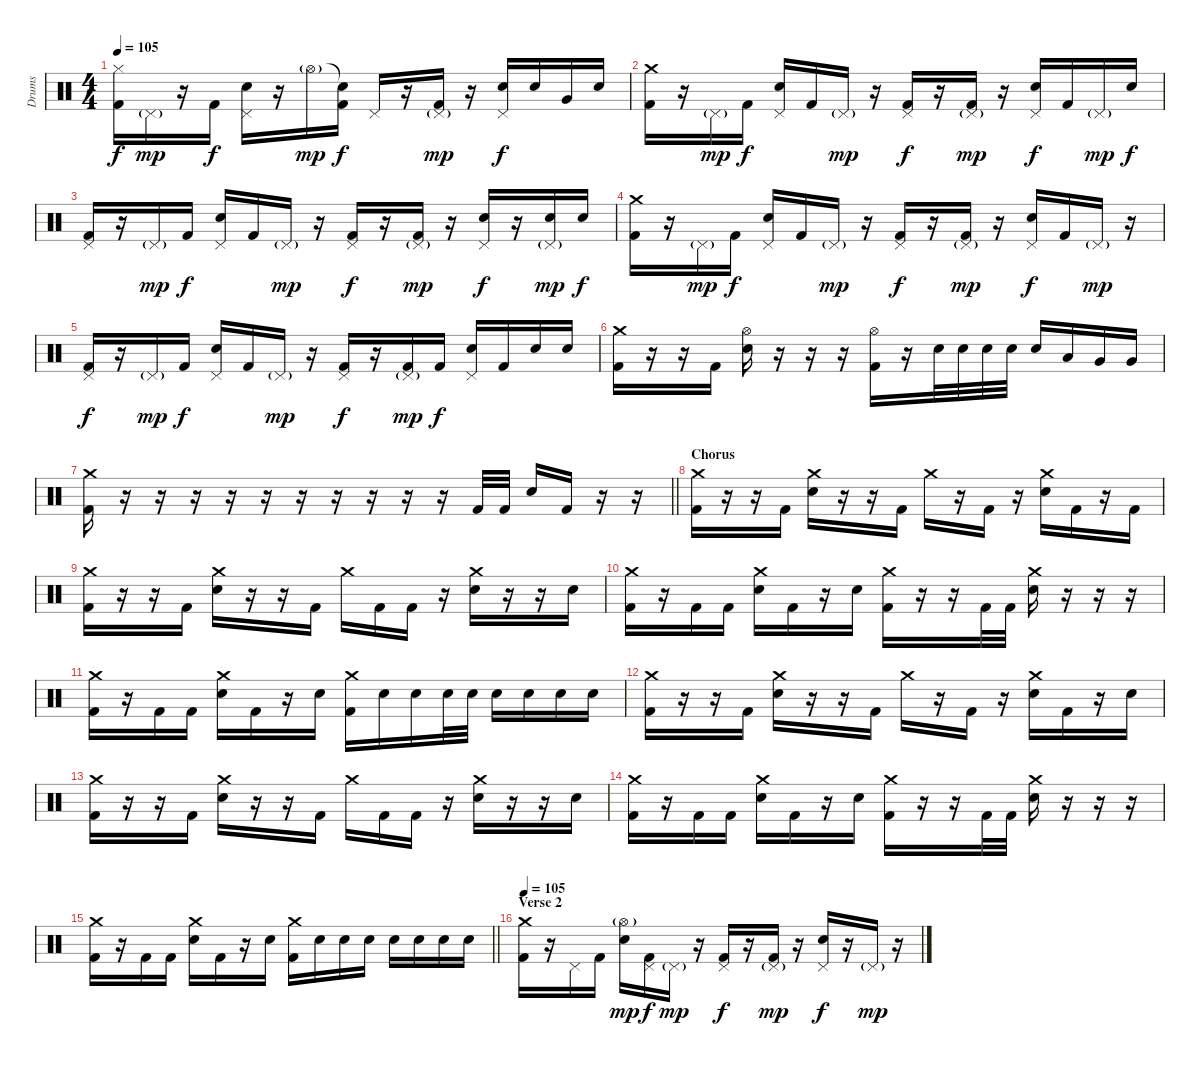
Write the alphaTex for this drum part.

\track ("Drums" "Drums") {instrument percussion}
\staff {score}
\articulation defaults
\ts (4 4)
\tempo 105
\clef neutral
\ks c
("Hi-Hat (closed)" "Kick (hit) 2").16{dy f} "Pedal Hi-Hat (hit)"{g}.16{dy mp} r.16 "Kick (hit) 2".16{dy f} ("Pedal Hi-Hat (hit)" "Electric Snare (hit)").16 r.16 "Hi-Hat (open)"{g}.16{dy mp} ("Snare (hit)"{t} "Kick (hit) 2").16{dy f} "Pedal Hi-Hat (hit)".16 r.16 ("Pedal Hi-Hat (hit)"{g} "Kick (hit) 2").16{dy mp} r.16 ("Pedal Hi-Hat (hit)" "Electric Snare (hit)").16{dy f} "Electric Snare (hit)".16 "Very Low Tom (hit)".16 "Electric Snare (hit)".16 |
("Crash medium (hit)" "Kick (hit) 2").16 r.16 "Pedal Hi-Hat (hit)"{g}.16{dy mp} "Kick (hit) 2".16{dy f} ("Pedal Hi-Hat (hit)" "Electric Snare (hit)").16 "Kick (hit) 2".16 "Pedal Hi-Hat (hit)"{g}.16{dy mp} r.16 ("Pedal Hi-Hat (hit)" "Kick (hit) 2").16{dy f} r.16 ("Pedal Hi-Hat (hit)"{g} "Kick (hit) 2").16{dy mp} r.16 ("Pedal Hi-Hat (hit)" "Electric Snare (hit)").16{dy f} "Kick (hit) 2".16 "Pedal Hi-Hat (hit)"{g}.16{dy mp} "Electric Snare (hit)".16{dy f} |
("Pedal Hi-Hat (hit)" "Kick (hit) 2").16 r.16 "Pedal Hi-Hat (hit)"{g}.16{dy mp} "Kick (hit) 2".16{dy f} ("Pedal Hi-Hat (hit)" "Electric Snare (hit)").16 "Kick (hit) 2".16 "Pedal Hi-Hat (hit)"{g}.16{dy mp} r.16 ("Pedal Hi-Hat (hit)" "Kick (hit) 2").16{dy f} r.16 ("Pedal Hi-Hat (hit)"{g} "Kick (hit) 2").16{dy mp} r.16 ("Pedal Hi-Hat (hit)" "Electric Snare (hit)").16{dy f} r.16 ("Pedal Hi-Hat (hit)"{g} "Electric Snare (hit)").16{dy mp} "Electric Snare (hit)".16{dy f} |
("Crash medium (hit)" "Kick (hit) 2").16 r.16 "Pedal Hi-Hat (hit)"{g}.16{dy mp} "Kick (hit) 2".16{dy f} ("Pedal Hi-Hat (hit)" "Electric Snare (hit)").16 "Kick (hit) 2".16 "Pedal Hi-Hat (hit)"{g}.16{dy mp} r.16 ("Pedal Hi-Hat (hit)" "Kick (hit) 2").16{dy f} r.16 ("Pedal Hi-Hat (hit)"{g} "Kick (hit) 2").16{dy mp} r.16 ("Pedal Hi-Hat (hit)" "Electric Snare (hit)").16{dy f} "Kick (hit) 2".16 "Pedal Hi-Hat (hit)"{g}.16{dy mp} r.16 |
("Pedal Hi-Hat (hit)" "Kick (hit) 2").16{dy f} r.16 "Pedal Hi-Hat (hit)"{g}.16{dy mp} "Kick (hit) 2".16{dy f} ("Pedal Hi-Hat (hit)" "Electric Snare (hit)").16 "Kick (hit) 2".16 "Pedal Hi-Hat (hit)"{g}.16{dy mp} r.16 ("Pedal Hi-Hat (hit)" "Kick (hit) 2").16{dy f} r.16 ("Pedal Hi-Hat (hit)"{g} "Kick (hit) 2").16{dy mp} "Kick (hit) 2".16{dy f} ("Pedal Hi-Hat (hit)" "Electric Snare (hit)").16 "Kick (hit) 2".16 "Electric Snare (hit)".16 "Electric Snare (hit)".16 |
("Crash medium (hit)" "Kick (hit) 2").16 r.16 r.16 "Kick (hit) 2".16 ("Hi-Hat (open)" "Electric Snare (hit)").16 r.16 r.16 r.16 ("Hi-Hat (open)" "Kick (hit) 2").16 r.16 "Electric Snare (hit)".32 "Electric Snare (hit)".32 "Electric Snare (hit)".32 "Electric Snare (hit)".32 "Electric Snare (hit)".16 "Low Tom (hit)".16 "Very Low Tom (hit)".16 "Very Low Tom (hit)".16 |
\barLineRight lightlight
("Crash medium (hit)" "Kick (hit) 2").16 r.16 r.16 r.16 r.16 r.16 r.16 r.16 r.16 r.16 r.16 "Kick (hit) 2".32 "Kick (hit) 2".32 "Electric Snare (hit)".16 "Kick (hit) 2".16 r.16 r.16 |
\section ("" "Chorus")
("Crash medium (hit)" "Kick (hit) 2").16 r.16 r.16 "Kick (hit) 2".16 ("Crash medium (hit)" "Electric Snare (hit)").16 r.16 r.16 "Kick (hit) 2".16 "Crash medium (hit)".16 r.16 "Kick (hit) 2".16 r.16 ("Crash medium (hit)" "Electric Snare (hit)").16 "Kick (hit) 2".16 r.16 "Kick (hit) 2".16 |
("Crash medium (hit)" "Kick (hit) 2").16 r.16 r.16 "Kick (hit) 2".16 ("Crash medium (hit)" "Electric Snare (hit)").16 r.16 r.16 "Kick (hit) 2".16 "Crash medium (hit)".16 "Kick (hit) 2".16 "Kick (hit) 2".16 r.16 ("Crash medium (hit)" "Electric Snare (hit)").16 r.16 r.16 "Electric Snare (hit)".16 |
("Crash medium (hit)" "Kick (hit) 2").16 r.16 "Kick (hit) 2".16 "Kick (hit) 2".16 ("Crash medium (hit)" "Electric Snare (hit)").16 "Kick (hit) 2".16 r.16 "Electric Snare (hit)".16 ("Crash medium (hit)" "Kick (hit) 2").16 r.16 r.16 "Kick (hit) 2".32 "Kick (hit) 2".32 ("Crash medium (hit)" "Electric Snare (hit)").16 r.16 r.16 r.16 |
("Crash medium (hit)" "Kick (hit) 2").16 r.16 "Kick (hit) 2".16 "Kick (hit) 2".16 ("Crash medium (hit)" "Electric Snare (hit)").16 "Kick (hit) 2".16 r.16 "Electric Snare (hit)".16 ("Crash medium (hit)" "Kick (hit) 2").16 "Electric Snare (hit)".16 "Electric Snare (hit)".16 "Electric Snare (hit)".32 "Electric Snare (hit)".32 "Electric Snare (hit)".16 "Electric Snare (hit)".16 "Electric Snare (hit)".16 "Electric Snare (hit)".16 |
("Crash medium (hit)" "Kick (hit) 2").16 r.16 r.16 "Kick (hit) 2".16 ("Crash medium (hit)" "Electric Snare (hit)").16 r.16 r.16 "Kick (hit) 2".16 "Crash medium (hit)".16 r.16 "Kick (hit) 2".16 r.16 ("Crash medium (hit)" "Electric Snare (hit)").16 "Kick (hit) 2".16 r.16 "Electric Snare (hit)".16 |
("Crash medium (hit)" "Kick (hit) 2").16 r.16 r.16 "Kick (hit) 2".16 ("Crash medium (hit)" "Electric Snare (hit)").16 r.16 r.16 "Kick (hit) 2".16 "Crash medium (hit)".16 "Kick (hit) 2".16 "Kick (hit) 2".16 r.16 ("Crash medium (hit)" "Electric Snare (hit)").16 r.16 r.16 "Electric Snare (hit)".16 |
("Crash medium (hit)" "Kick (hit) 2").16 r.16 "Kick (hit) 2".16 "Kick (hit) 2".16 ("Crash medium (hit)" "Electric Snare (hit)").16 "Kick (hit) 2".16 r.16 "Electric Snare (hit)".16 ("Crash medium (hit)" "Kick (hit) 2").16 r.16 r.16 "Kick (hit) 2".32 "Kick (hit) 2".32 ("Crash medium (hit)" "Electric Snare (hit)").16 r.16 r.16 r.16 |
\barLineRight lightlight
("Crash medium (hit)" "Kick (hit) 2").16 r.16 "Kick (hit) 2".16 "Kick (hit) 2".16 ("Crash medium (hit)" "Electric Snare (hit)").16 "Kick (hit) 2".16 r.16 "Electric Snare (hit)".16 ("Crash medium (hit)" "Kick (hit) 2").16 "Electric Snare (hit)".16 "Electric Snare (hit)".16 "Electric Snare (hit)".16 "Electric Snare (hit)".16 "Electric Snare (hit)".16 "Electric Snare (hit)".16 "Electric Snare (hit)".16 |
\section ("" "Verse 2")
\tempo 105
("Crash medium (hit)" "Kick (hit) 2").16 r.16 "Pedal Hi-Hat (hit)".16 "Kick (hit) 2".16 ("Hi-Hat (open)"{g} "Electric Snare (hit)").16{dy mp} ("Pedal Hi-Hat (hit)" "Kick (hit) 2").16{dy f} "Pedal Hi-Hat (hit)"{g}.16{dy mp} r.16 ("Pedal Hi-Hat (hit)" "Kick (hit) 2").16{dy f} r.16 ("Pedal Hi-Hat (hit)"{g} "Kick (hit) 2").16{dy mp} r.16 ("Pedal Hi-Hat (hit)" "Electric Snare (hit)").16{dy f} r.16 "Pedal Hi-Hat (hit)"{g}.16{dy mp} r.16
